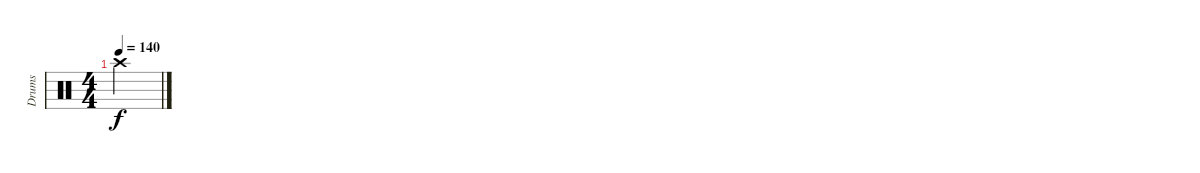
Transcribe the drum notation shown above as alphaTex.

\track ("Drums" "Drums") {instrument percussion}
\staff {score}
\articulation defaults
\ts (4 4)
\tempo 140
\clef neutral
\ks c "Crash high (hit)".2{dy f}
